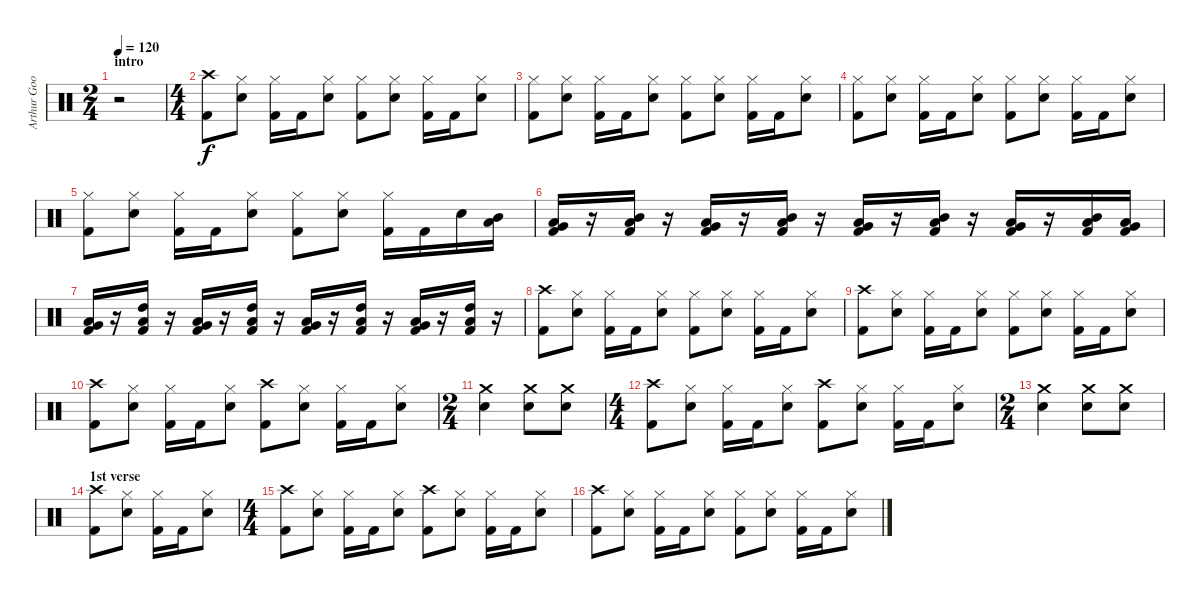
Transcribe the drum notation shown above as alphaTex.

\track ("Arthur Googy" "Arthur Goo") {instrument percussion}
\staff {score}
\articulation defaults
\ts (2 4)
\section ("" "intro")
\tempo 120
\clef neutral
\ks c
r.2{dy f} |
\ts (4 4)
("Crash high (hit)" "Kick (hit) 2").8 ("Hi-Hat (closed)" "Snare (hit) 2").8 ("Hi-Hat (closed)" "Kick (hit) 2").16 "Kick (hit) 2".16 ("Hi-Hat (closed)" "Snare (hit) 2").8 ("Hi-Hat (closed)" "Kick (hit) 2").8 ("Hi-Hat (closed)" "Snare (hit) 2").8 ("Hi-Hat (closed)" "Kick (hit) 2").16 "Kick (hit) 2".16 ("Hi-Hat (closed)" "Snare (hit) 2").8 |
("Hi-Hat (closed)" "Kick (hit) 2").8 ("Hi-Hat (closed)" "Snare (hit) 2").8 ("Hi-Hat (closed)" "Kick (hit) 2").16 "Kick (hit) 2".16 ("Hi-Hat (closed)" "Snare (hit) 2").8 ("Hi-Hat (closed)" "Kick (hit) 2").8 ("Hi-Hat (closed)" "Snare (hit) 2").8 ("Hi-Hat (closed)" "Kick (hit) 2").16 "Kick (hit) 2".16 ("Hi-Hat (closed)" "Snare (hit) 2").8 |
("Hi-Hat (closed)" "Kick (hit) 2").8 ("Hi-Hat (closed)" "Snare (hit) 2").8 ("Hi-Hat (closed)" "Kick (hit) 2").16 "Kick (hit) 2".16 ("Hi-Hat (closed)" "Snare (hit) 2").8 ("Hi-Hat (closed)" "Kick (hit) 2").8 ("Hi-Hat (closed)" "Snare (hit) 2").8 ("Hi-Hat (closed)" "Kick (hit) 2").16 "Kick (hit) 2".16 ("Hi-Hat (closed)" "Snare (hit) 2").8 |
("Hi-Hat (closed)" "Kick (hit) 2").8 ("Hi-Hat (closed)" "Snare (hit) 2").8 ("Hi-Hat (closed)" "Kick (hit) 2").16 "Kick (hit) 2".16 ("Hi-Hat (closed)" "Snare (hit) 2").8 ("Hi-Hat (closed)" "Kick (hit) 2").8 ("Hi-Hat (closed)" "Snare (hit) 2").8 ("Hi-Hat (closed)" "Kick (hit) 2").16 "Kick (hit) 2".16 "Snare (hit) 2".16 ("Mid Tom (hit)" "Low Tom (hit)").16 |
("Low Tom (hit)" "Very Low Tom (hit)" "Kick (hit) 2").16 r.16 ("Mid Tom (hit)" "Low Tom (hit)" "Kick (hit) 2").16 r.16 ("Low Tom (hit)" "Very Low Tom (hit)" "Kick (hit) 2").16 r.16 ("Mid Tom (hit)" "Low Tom (hit)" "Kick (hit) 2").16 r.16 ("Low Tom (hit)" "Very Low Tom (hit)" "Kick (hit) 2").16 r.16 ("Mid Tom (hit)" "Low Tom (hit)" "Kick (hit) 2").16 r.16 ("Low Tom (hit)" "Very Low Tom (hit)" "Kick (hit) 2").16 r.16 ("Mid Tom (hit)" "Low Tom (hit)" "Kick (hit) 2").16 ("Low Tom (hit)" "Very Low Tom (hit)" "Kick (hit) 2").16 |
("Low Tom (hit)" "Very Low Tom (hit)" "Kick (hit) 2").16 r.16 ("High Tom (hit)" "Low Tom (hit)" "Kick (hit) 2").16 r.16 ("Low Tom (hit)" "Very Low Tom (hit)" "Kick (hit) 2").16 r.16 ("High Tom (hit)" "Low Tom (hit)" "Kick (hit) 2").16 r.16 ("Low Tom (hit)" "Very Low Tom (hit)" "Kick (hit) 2").16 r.16 ("High Tom (hit)" "Low Tom (hit)" "Kick (hit) 2").16 r.16 ("Low Tom (hit)" "Very Low Tom (hit)" "Kick (hit) 2").16 r.16 ("High Tom (hit)" "Low Tom (hit)" "Kick (hit) 2").16 r.16 |
("Crash high (hit)" "Kick (hit) 2").8 ("Hi-Hat (closed)" "Snare (hit) 2").8 ("Hi-Hat (closed)" "Kick (hit) 2").16 "Kick (hit) 2".16 ("Hi-Hat (closed)" "Snare (hit) 2").8 ("Hi-Hat (closed)" "Kick (hit) 2").8 ("Hi-Hat (closed)" "Snare (hit) 2").8 ("Hi-Hat (closed)" "Kick (hit) 2").16 "Kick (hit) 2".16 ("Hi-Hat (closed)" "Snare (hit) 2").8 |
("Crash high (hit)" "Kick (hit) 2").8 ("Hi-Hat (closed)" "Snare (hit) 2").8 ("Hi-Hat (closed)" "Kick (hit) 2").16 "Kick (hit) 2".16 ("Hi-Hat (closed)" "Snare (hit) 2").8 ("Hi-Hat (closed)" "Kick (hit) 2").8 ("Hi-Hat (closed)" "Snare (hit) 2").8 ("Hi-Hat (closed)" "Kick (hit) 2").16 "Kick (hit) 2".16 ("Hi-Hat (closed)" "Snare (hit) 2").8 |
("Crash high (hit)" "Kick (hit) 2").8 ("Hi-Hat (closed)" "Snare (hit) 2").8 ("Hi-Hat (closed)" "Kick (hit) 2").16 "Kick (hit) 2".16 ("Hi-Hat (closed)" "Snare (hit) 2").8 ("Crash high (hit)" "Kick (hit) 2").8 ("Hi-Hat (closed)" "Snare (hit) 2").8 ("Hi-Hat (closed)" "Kick (hit) 2").16 "Kick (hit) 2".16 ("Hi-Hat (closed)" "Snare (hit) 2").8 |
\ts (2 4)
("Crash medium (hit)" "Snare (hit) 2").4 ("Crash medium (hit)" "Snare (hit) 2").8 ("Crash medium (hit)" "Snare (hit) 2").8 |
\ts (4 4)
("Crash high (hit)" "Kick (hit) 2").8 ("Hi-Hat (closed)" "Snare (hit) 2").8 ("Hi-Hat (closed)" "Kick (hit) 2").16 "Kick (hit) 2".16 ("Hi-Hat (closed)" "Snare (hit) 2").8 ("Crash high (hit)" "Kick (hit) 2").8 ("Hi-Hat (closed)" "Snare (hit) 2").8 ("Hi-Hat (closed)" "Kick (hit) 2").16 "Kick (hit) 2".16 ("Hi-Hat (closed)" "Snare (hit) 2").8 |
\ts (2 4)
("Crash medium (hit)" "Snare (hit) 2").4 ("Crash medium (hit)" "Snare (hit) 2").8 ("Crash medium (hit)" "Snare (hit) 2").8 |
\section ("" "1st verse")
("Crash high (hit)" "Kick (hit) 2").8 ("Hi-Hat (closed)" "Snare (hit) 2").8 ("Hi-Hat (closed)" "Kick (hit) 2").16 "Kick (hit) 2".16 ("Hi-Hat (closed)" "Snare (hit) 2").8 |
\ts (4 4)
("Crash high (hit)" "Kick (hit) 2").8 ("Hi-Hat (closed)" "Snare (hit) 2").8 ("Hi-Hat (closed)" "Kick (hit) 2").16 "Kick (hit) 2".16 ("Hi-Hat (closed)" "Snare (hit) 2").8 ("Crash high (hit)" "Kick (hit) 2").8 ("Hi-Hat (closed)" "Snare (hit) 2").8 ("Hi-Hat (closed)" "Kick (hit) 2").16 "Kick (hit) 2".16 ("Hi-Hat (closed)" "Snare (hit) 2").8 |
("Crash high (hit)" "Kick (hit) 2").8 ("Hi-Hat (closed)" "Snare (hit) 2").8 ("Hi-Hat (closed)" "Kick (hit) 2").16 "Kick (hit) 2".16 ("Hi-Hat (closed)" "Snare (hit) 2").8 ("Hi-Hat (closed)" "Kick (hit) 2").8 ("Hi-Hat (closed)" "Snare (hit) 2").8 ("Hi-Hat (closed)" "Kick (hit) 2").16 "Kick (hit) 2".16 ("Hi-Hat (closed)" "Snare (hit) 2").8
